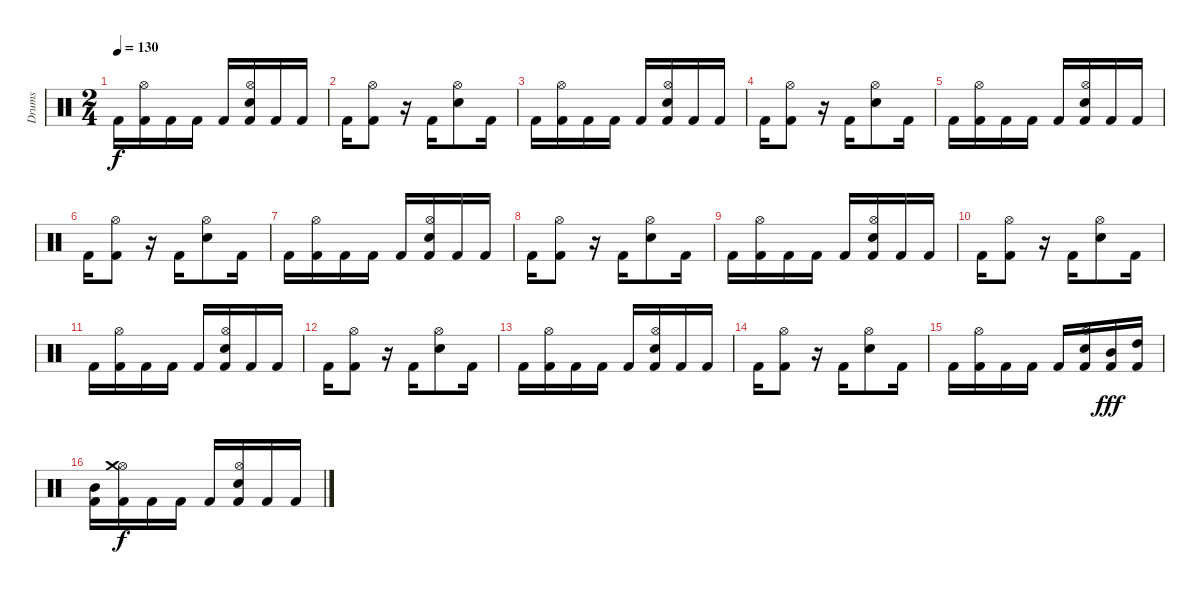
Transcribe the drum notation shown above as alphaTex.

\track ("Drums" "Drums") {instrument percussion}
\staff {score}
\articulation defaults
\ts (2 4)
\tempo 130
\clef neutral
\ks c "Kick (hit) 2".16{dy f}
("Kick (hit) 2" "Hi-Hat (open)").16 "Kick (hit) 2".16 "Kick (hit) 2".16 "Kick (hit) 2".16 ("Kick (hit) 2" "Hi-Hat (open)" "Electric Snare (hit)").16 "Kick (hit) 2".16 "Kick (hit) 2".16 |
"Kick (hit) 2".16 ("Kick (hit) 2" "Hi-Hat (open)").8 r.16 "Kick (hit) 2".16 ("Electric Snare (hit)" "Hi-Hat (open)").8 "Kick (hit) 2".16 |
"Kick (hit) 2".16 ("Kick (hit) 2" "Hi-Hat (open)").16 "Kick (hit) 2".16 "Kick (hit) 2".16 "Kick (hit) 2".16 ("Kick (hit) 2" "Hi-Hat (open)" "Electric Snare (hit)").16 "Kick (hit) 2".16 "Kick (hit) 2".16 |
"Kick (hit) 2".16 ("Kick (hit) 2" "Hi-Hat (open)").8 r.16 "Kick (hit) 2".16 ("Electric Snare (hit)" "Hi-Hat (open)").8 "Kick (hit) 2".16 |
"Kick (hit) 2".16 ("Kick (hit) 2" "Hi-Hat (open)").16 "Kick (hit) 2".16 "Kick (hit) 2".16 "Kick (hit) 2".16 ("Kick (hit) 2" "Hi-Hat (open)" "Electric Snare (hit)").16 "Kick (hit) 2".16 "Kick (hit) 2".16 |
"Kick (hit) 2".16 ("Kick (hit) 2" "Hi-Hat (open)").8 r.16 "Kick (hit) 2".16 ("Electric Snare (hit)" "Hi-Hat (open)").8 "Kick (hit) 2".16 |
"Kick (hit) 2".16 ("Kick (hit) 2" "Hi-Hat (open)").16 "Kick (hit) 2".16 "Kick (hit) 2".16 "Kick (hit) 2".16 ("Kick (hit) 2" "Hi-Hat (open)" "Electric Snare (hit)").16 "Kick (hit) 2".16 "Kick (hit) 2".16 |
"Kick (hit) 2".16 ("Kick (hit) 2" "Hi-Hat (open)").8 r.16 "Kick (hit) 2".16 ("Electric Snare (hit)" "Hi-Hat (open)").8 "Kick (hit) 2".16 |
"Kick (hit) 2".16 ("Kick (hit) 2" "Hi-Hat (open)").16 "Kick (hit) 2".16 "Kick (hit) 2".16 "Kick (hit) 2".16 ("Kick (hit) 2" "Hi-Hat (open)" "Electric Snare (hit)").16 "Kick (hit) 2".16 "Kick (hit) 2".16 |
"Kick (hit) 2".16 ("Kick (hit) 2" "Hi-Hat (open)").8 r.16 "Kick (hit) 2".16 ("Electric Snare (hit)" "Hi-Hat (open)").8 "Kick (hit) 2".16 |
"Kick (hit) 2".16 ("Kick (hit) 2" "Hi-Hat (open)").16 "Kick (hit) 2".16 "Kick (hit) 2".16 "Kick (hit) 2".16 ("Kick (hit) 2" "Hi-Hat (open)" "Electric Snare (hit)").16 "Kick (hit) 2".16 "Kick (hit) 2".16 |
"Kick (hit) 2".16 ("Kick (hit) 2" "Hi-Hat (open)").8 r.16 "Kick (hit) 2".16 ("Electric Snare (hit)" "Hi-Hat (open)").8 "Kick (hit) 2".16 |
"Kick (hit) 2".16 ("Kick (hit) 2" "Hi-Hat (open)").16 "Kick (hit) 2".16 "Kick (hit) 2".16 "Kick (hit) 2".16 ("Kick (hit) 2" "Hi-Hat (open)" "Electric Snare (hit)").16 "Kick (hit) 2".16 "Kick (hit) 2".16 |
"Kick (hit) 2".16 ("Kick (hit) 2" "Hi-Hat (open)").8 r.16 "Kick (hit) 2".16 ("Electric Snare (hit)" "Hi-Hat (open)").8 "Kick (hit) 2".16 |
"Kick (hit) 2".16 ("Kick (hit) 2" "Hi-Hat (open)").16 "Kick (hit) 2".16 "Kick (hit) 2".16 "Kick (hit) 2".16 ("Kick (hit) 2" "Hi-Hat (open)" "Electric Snare (hit)").16 ("Kick (hit) 2" "Mid Tom (hit)").16{dy fff} ("Kick (hit) 2" "High Tom (hit)").16 |
("Kick (hit) 2" "Mid Tom (hit)").16 ("Kick (hit) 2" "Hi-Hat (open)" "Crash medium (hit)").16{dy f} "Kick (hit) 2".16 "Kick (hit) 2".16 "Kick (hit) 2".16 ("Kick (hit) 2" "Electric Snare (hit)" "Hi-Hat (open)").16 "Kick (hit) 2".16 "Kick (hit) 2".16
